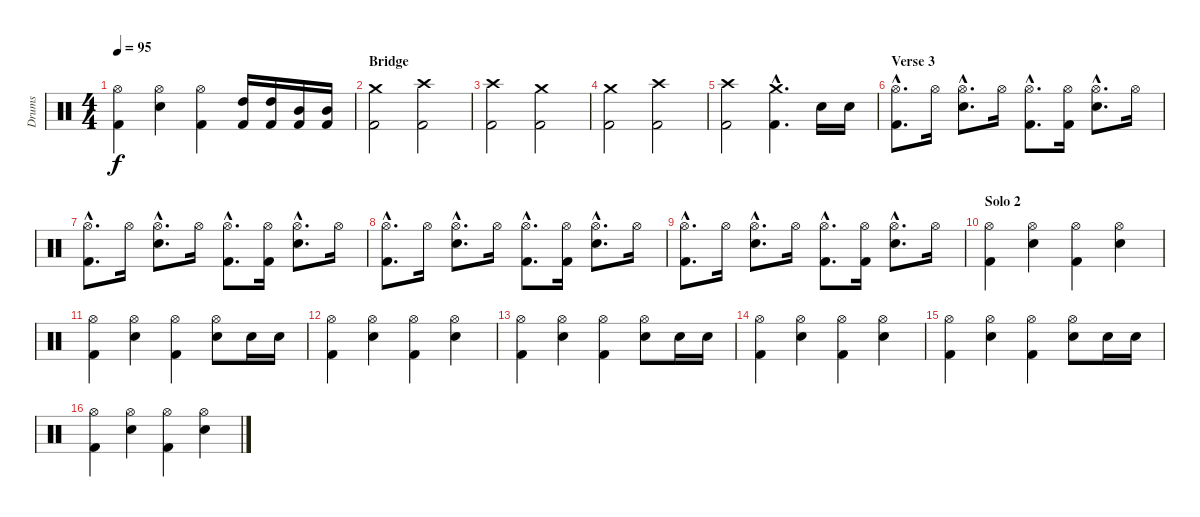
\track ("Drums" "Drums") {instrument percussion}
\staff {score}
\articulation defaults
\ts (4 4)
\tempo 95
\clef neutral
\ks c
("Hi-Hat (open)" "Kick (hit) 2").4{dy f} ("Hi-Hat (open)" "Electric Snare (hit)").4 ("Hi-Hat (open)" "Kick (hit) 2").4 ("High Tom (hit)" "Kick (hit) 2").16 ("High Tom (hit)" "Kick (hit) 2").16 ("Mid Tom (hit)" "Kick (hit) 2").16 ("Mid Tom (hit)" "Kick (hit) 2").16 |
\section ("" "Bridge")
("Crash medium (hit)" "Kick (hit) 2").2 ("Crash high (hit)" "Kick (hit) 2").2 |
("Crash high (hit)" "Kick (hit) 2").2 ("Crash medium (hit)" "Kick (hit) 2").2 |
("Crash medium (hit)" "Kick (hit) 2").2 ("Crash high (hit)" "Kick (hit) 2").2 |
("Crash high (hit)" "Kick (hit) 2").2 ("Crash medium (hit)"{hac} "Kick (hit) 2"{hac}).4{d} "Electric Snare (hit)".16 "Electric Snare (hit)".16 |
\section ("" "Verse 3")
("Hi-Hat (open)"{hac} "Kick (hit) 2"{hac}).8{d} "Hi-Hat (open)".16 ("Hi-Hat (open)"{hac} "Electric Snare (hit)"{hac}).8{d} "Hi-Hat (open)".16 ("Hi-Hat (open)"{hac} "Kick (hit) 2"{hac}).8{d} ("Hi-Hat (open)" "Kick (hit) 2").16 ("Hi-Hat (open)"{hac} "Electric Snare (hit)"{hac}).8{d} "Hi-Hat (open)".16 |
("Hi-Hat (open)"{hac} "Kick (hit) 2"{hac}).8{d} "Hi-Hat (open)".16 ("Hi-Hat (open)"{hac} "Electric Snare (hit)"{hac}).8{d} "Hi-Hat (open)".16 ("Hi-Hat (open)"{hac} "Kick (hit) 2"{hac}).8{d} ("Hi-Hat (open)" "Kick (hit) 2").16 ("Hi-Hat (open)"{hac} "Electric Snare (hit)"{hac}).8{d} "Hi-Hat (open)".16 |
("Hi-Hat (open)"{hac} "Kick (hit) 2"{hac}).8{d} "Hi-Hat (open)".16 ("Hi-Hat (open)"{hac} "Electric Snare (hit)"{hac}).8{d} "Hi-Hat (open)".16 ("Hi-Hat (open)"{hac} "Kick (hit) 2"{hac}).8{d} ("Hi-Hat (open)" "Kick (hit) 2").16 ("Hi-Hat (open)"{hac} "Electric Snare (hit)"{hac}).8{d} "Hi-Hat (open)".16 |
("Hi-Hat (open)"{hac} "Kick (hit) 2"{hac}).8{d} "Hi-Hat (open)".16 ("Hi-Hat (open)"{hac} "Electric Snare (hit)"{hac}).8{d} "Hi-Hat (open)".16 ("Hi-Hat (open)"{hac} "Kick (hit) 2"{hac}).8{d} ("Hi-Hat (open)" "Kick (hit) 2").16 ("Hi-Hat (open)"{hac} "Electric Snare (hit)"{hac}).8{d} "Hi-Hat (open)".16 |
\section ("" "Solo 2")
("Hi-Hat (open)" "Kick (hit) 2").4 ("Hi-Hat (open)" "Electric Snare (hit)").4 ("Hi-Hat (open)" "Kick (hit) 2").4 ("Hi-Hat (open)" "Electric Snare (hit)").4 |
("Hi-Hat (open)" "Kick (hit) 2").4 ("Hi-Hat (open)" "Electric Snare (hit)").4 ("Hi-Hat (open)" "Kick (hit) 2").4 ("Hi-Hat (open)" "Electric Snare (hit)").8 "Electric Snare (hit)".16 "Electric Snare (hit)".16 |
("Hi-Hat (open)" "Kick (hit) 2").4 ("Hi-Hat (open)" "Electric Snare (hit)").4 ("Hi-Hat (open)" "Kick (hit) 2").4 ("Hi-Hat (open)" "Electric Snare (hit)").4 |
("Hi-Hat (open)" "Kick (hit) 2").4 ("Hi-Hat (open)" "Electric Snare (hit)").4 ("Hi-Hat (open)" "Kick (hit) 2").4 ("Hi-Hat (open)" "Electric Snare (hit)").8 "Electric Snare (hit)".16 "Electric Snare (hit)".16 |
("Hi-Hat (open)" "Kick (hit) 2").4 ("Hi-Hat (open)" "Electric Snare (hit)").4 ("Hi-Hat (open)" "Kick (hit) 2").4 ("Hi-Hat (open)" "Electric Snare (hit)").4 |
("Hi-Hat (open)" "Kick (hit) 2").4 ("Hi-Hat (open)" "Electric Snare (hit)").4 ("Hi-Hat (open)" "Kick (hit) 2").4 ("Hi-Hat (open)" "Electric Snare (hit)").8 "Electric Snare (hit)".16 "Electric Snare (hit)".16 |
("Hi-Hat (open)" "Kick (hit) 2").4 ("Hi-Hat (open)" "Electric Snare (hit)").4 ("Hi-Hat (open)" "Kick (hit) 2").4 ("Hi-Hat (open)" "Electric Snare (hit)").4
